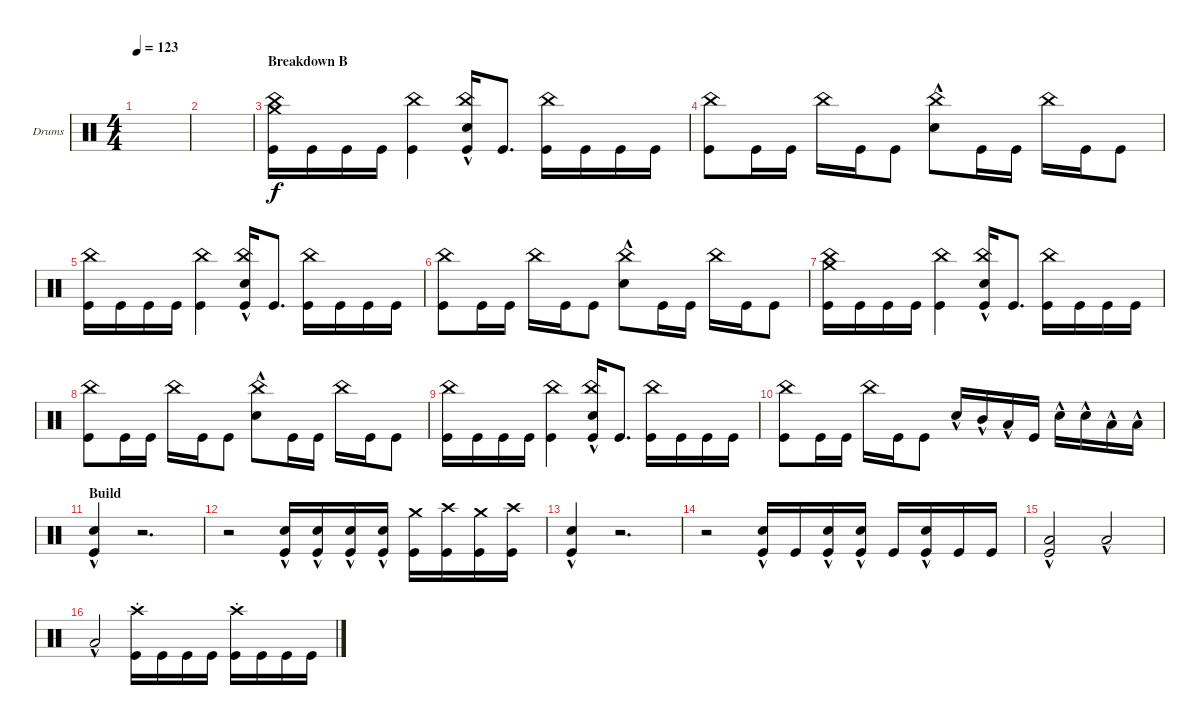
\bracketExtendMode groupsimilarinstruments
\firstSystemTrackNameOrientation horizontal
\otherSystemsTrackNameOrientation horizontal
\track ("Drumkit" "Drums") {instrument percussion}
\staff {score}
\articulation defaults
\ts (4 4)
\tempo 123
\clef neutral
\ks aminor
|
|
\section ("" "Breakdown B")
("Crash medium (hit)" "Kick (hit)" "China (hit)").16 "Kick (hit)".16 "Kick (hit)".16 "Kick (hit)".16 ("Kick (hit)" "China (hit)").4 ("Kick (hit)" "China (hit)" "Snare (hit) 2"{hac}).16 "Kick (hit)".8{d} ("Kick (hit)" "China (hit)").16 "Kick (hit)".16 "Kick (hit)".16 "Kick (hit)".16 |
("Kick (hit)" "China (hit)").8 "Kick (hit)".16 "Kick (hit)".16 "China (hit)".16 "Kick (hit)".16 "Kick (hit)".8 ("Snare (hit) 2"{hac} "China (hit)").8 "Kick (hit)".16 "Kick (hit)".16 "China (hit)".16 "Kick (hit)".16 "Kick (hit)".8 |
("Kick (hit)" "China (hit)").16 "Kick (hit)".16 "Kick (hit)".16 "Kick (hit)".16 ("Kick (hit)" "China (hit)").4 ("Kick (hit)" "China (hit)" "Snare (hit) 2"{hac}).16 "Kick (hit)".8{d} ("Kick (hit)" "China (hit)").16 "Kick (hit)".16 "Kick (hit)".16 "Kick (hit)".16 |
("Kick (hit)" "China (hit)").8 "Kick (hit)".16 "Kick (hit)".16 "China (hit)".16 "Kick (hit)".16 "Kick (hit)".8 ("Snare (hit) 2"{hac} "China (hit)").8 "Kick (hit)".16 "Kick (hit)".16 "China (hit)".16 "Kick (hit)".16 "Kick (hit)".8 |
("Crash medium (hit)" "Kick (hit)" "China (hit)").16 "Kick (hit)".16 "Kick (hit)".16 "Kick (hit)".16 ("Kick (hit)" "China (hit)").4 ("Kick (hit)" "China (hit)" "Snare (hit) 2"{hac}).16 "Kick (hit)".8{d} ("Kick (hit)" "China (hit)").16 "Kick (hit)".16 "Kick (hit)".16 "Kick (hit)".16 |
("Kick (hit)" "China (hit)").8 "Kick (hit)".16 "Kick (hit)".16 "China (hit)".16 "Kick (hit)".16 "Kick (hit)".8 ("Snare (hit) 2"{hac} "China (hit)").8 "Kick (hit)".16 "Kick (hit)".16 "China (hit)".16 "Kick (hit)".16 "Kick (hit)".8 |
("Kick (hit)" "China (hit)").16 "Kick (hit)".16 "Kick (hit)".16 "Kick (hit)".16 ("Kick (hit)" "China (hit)").4 ("Kick (hit)" "China (hit)" "Snare (hit) 2"{hac}).16 "Kick (hit)".8{d} ("Kick (hit)" "China (hit)").16 "Kick (hit)".16 "Kick (hit)".16 "Kick (hit)".16 |
("Kick (hit)" "China (hit)").8 "Kick (hit)".16 "Kick (hit)".16 "China (hit)".16 "Kick (hit)".16 "Kick (hit)".8 "Snare (hit) 2"{hac}.16 "Mid Tom (hit)"{hac}.16 "Low Tom (hit)"{hac}.16 "Kick (hit)".16 "Snare (hit) 2"{hac}.16 "Snare (hit) 2"{hac}.16 "Low Tom (hit)"{hac}.16 "Low Tom (hit)"{hac}.16 |
\section ("" "Build")
("Kick (hit)" "Snare (hit) 2"{hac}).4 r.2{d} |
r.2 ("Kick (hit)" "Snare (hit) 2"{hac}).16 ("Kick (hit)" "Snare (hit) 2"{hac}).16 ("Kick (hit)" "Snare (hit) 2"{hac}).16 ("Kick (hit)" "Snare (hit) 2"{hac}).16 ("Kick (hit)" "Crash medium (hit)").16 ("Kick (hit)" "Crash high (hit)").16 ("Kick (hit)" "Crash medium (hit)").16 ("Kick (hit)" "Crash high (hit)").16 |
("Kick (hit)" "Snare (hit) 2"{hac}).4 r.2{d} |
r.2 ("Kick (hit)" "Snare (hit) 2"{hac}).16 "Kick (hit)".16 ("Kick (hit)" "Snare (hit) 2"{hac}).16 ("Kick (hit)" "Snare (hit) 2"{hac}).16 "Kick (hit)".16 ("Kick (hit)" "Snare (hit) 2"{hac}).16 "Kick (hit)".16 "Kick (hit)".16 |
("Kick (hit)" "Low Tom (hit)"{hac}).2 "Low Tom (hit)"{hac}.2 |
"Low Tom (hit)"{hac}.2 ("Kick (hit)" "Crash high (hit)"{st}).16 "Kick (hit)".16 "Kick (hit)".16 "Kick (hit)".16 ("Kick (hit)" "Crash high (hit)"{st}).16 "Kick (hit)".16 "Kick (hit)".16 "Kick (hit)".16
